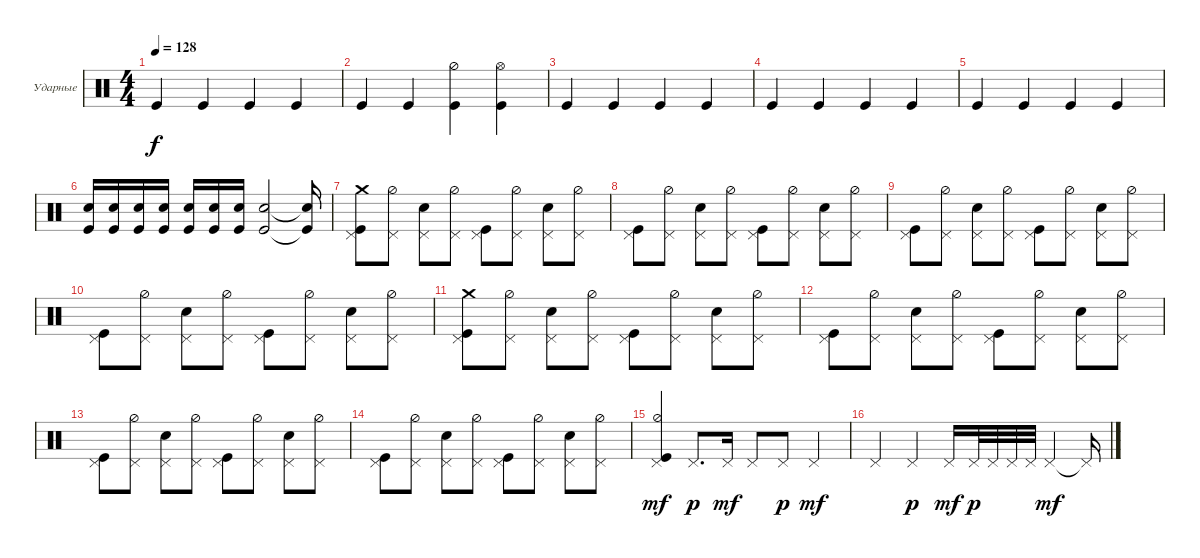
\defaultSystemsLayout 4
\bracketExtendMode groupsimilarinstruments
\firstSystemTrackNameOrientation horizontal
\otherSystemsTrackNameOrientation horizontal
\track ("Е. Кулаков" "Ударные") {instrument percussion}
\staff {score}
\articulation defaults
\ts (4 4)
\tempo 128
\clef neutral
\ks c "Kick (hit)".4{dy f} "Kick (hit)".4 "Kick (hit)".4 "Kick (hit)".4
|
"Kick (hit)".4 "Kick (hit)".4 ("Kick (hit)" "Hi-Hat (half)").4 ("Kick (hit)" "Hi-Hat (open)").4 |
"Kick (hit)".4 "Kick (hit)".4 "Kick (hit)".4 "Kick (hit)".4 |
"Kick (hit)".4 "Kick (hit)".4 "Kick (hit)".4 "Kick (hit)".4 |
"Kick (hit)".4 "Kick (hit)".4 "Kick (hit)".4 "Kick (hit)".4 |
("Kick (hit)" "Snare (hit) 2").16 ("Kick (hit)" "Snare (hit) 2").16 ("Kick (hit)" "Snare (hit) 2").16 ("Kick (hit)" "Snare (hit) 2").16 ("Kick (hit)" "Snare (hit) 2").16 ("Kick (hit)" "Snare (hit) 2").16 ("Kick (hit)" "Snare (hit) 2").16 ("Kick (hit)" "Snare (hit) 2").2 ("Kick (hit)"{t} "Snare (hit) 2"{t}).16 |
("Kick (hit)" "Pedal Hi-Hat (hit)" "Crash medium (hit)").8 ("Hi-Hat (half)" "Pedal Hi-Hat (hit)").8 ("Pedal Hi-Hat (hit)" "Snare (hit) 2").8 ("Hi-Hat (half)" "Pedal Hi-Hat (hit)").8 ("Kick (hit)" "Pedal Hi-Hat (hit)").8 ("Hi-Hat (half)" "Pedal Hi-Hat (hit)").8 ("Pedal Hi-Hat (hit)" "Snare (hit) 2").8 ("Hi-Hat (half)" "Pedal Hi-Hat (hit)").8 |
("Kick (hit)" "Pedal Hi-Hat (hit)").8 ("Hi-Hat (half)" "Pedal Hi-Hat (hit)").8 ("Pedal Hi-Hat (hit)" "Snare (hit) 2").8 ("Hi-Hat (half)" "Pedal Hi-Hat (hit)").8 ("Kick (hit)" "Pedal Hi-Hat (hit)").8 ("Hi-Hat (half)" "Pedal Hi-Hat (hit)").8 ("Pedal Hi-Hat (hit)" "Snare (hit) 2").8 ("Hi-Hat (half)" "Pedal Hi-Hat (hit)").8 |
("Kick (hit)" "Pedal Hi-Hat (hit)").8 ("Hi-Hat (half)" "Pedal Hi-Hat (hit)").8 ("Pedal Hi-Hat (hit)" "Snare (hit) 2").8 ("Hi-Hat (half)" "Pedal Hi-Hat (hit)").8 ("Kick (hit)" "Pedal Hi-Hat (hit)").8 ("Hi-Hat (half)" "Pedal Hi-Hat (hit)").8 ("Pedal Hi-Hat (hit)" "Snare (hit) 2").8 ("Hi-Hat (half)" "Pedal Hi-Hat (hit)").8 |
("Kick (hit)" "Pedal Hi-Hat (hit)").8 ("Hi-Hat (half)" "Pedal Hi-Hat (hit)").8 ("Pedal Hi-Hat (hit)" "Snare (hit) 2").8 ("Hi-Hat (half)" "Pedal Hi-Hat (hit)").8 ("Kick (hit)" "Pedal Hi-Hat (hit)").8 ("Hi-Hat (half)" "Pedal Hi-Hat (hit)").8 ("Pedal Hi-Hat (hit)" "Snare (hit) 2").8 ("Hi-Hat (half)" "Pedal Hi-Hat (hit)").8 |
("Kick (hit)" "Pedal Hi-Hat (hit)" "Crash medium (hit)").8 ("Hi-Hat (half)" "Pedal Hi-Hat (hit)").8 ("Pedal Hi-Hat (hit)" "Snare (hit) 2").8 ("Hi-Hat (half)" "Pedal Hi-Hat (hit)").8 ("Kick (hit)" "Pedal Hi-Hat (hit)").8 ("Hi-Hat (half)" "Pedal Hi-Hat (hit)").8 ("Pedal Hi-Hat (hit)" "Snare (hit) 2").8 ("Hi-Hat (half)" "Pedal Hi-Hat (hit)").8 |
("Kick (hit)" "Pedal Hi-Hat (hit)").8 ("Hi-Hat (half)" "Pedal Hi-Hat (hit)").8 ("Pedal Hi-Hat (hit)" "Snare (hit) 2").8 ("Hi-Hat (half)" "Pedal Hi-Hat (hit)").8 ("Kick (hit)" "Pedal Hi-Hat (hit)").8 ("Hi-Hat (half)" "Pedal Hi-Hat (hit)").8 ("Pedal Hi-Hat (hit)" "Snare (hit) 2").8 ("Hi-Hat (half)" "Pedal Hi-Hat (hit)").8 |
("Kick (hit)" "Pedal Hi-Hat (hit)").8 ("Hi-Hat (half)" "Pedal Hi-Hat (hit)").8 ("Pedal Hi-Hat (hit)" "Snare (hit) 2").8 ("Hi-Hat (half)" "Pedal Hi-Hat (hit)").8 ("Kick (hit)" "Pedal Hi-Hat (hit)").8 ("Hi-Hat (half)" "Pedal Hi-Hat (hit)").8 ("Pedal Hi-Hat (hit)" "Snare (hit) 2").8 ("Hi-Hat (half)" "Pedal Hi-Hat (hit)").8 |
("Kick (hit)" "Pedal Hi-Hat (hit)").8 ("Hi-Hat (half)" "Pedal Hi-Hat (hit)").8 ("Pedal Hi-Hat (hit)" "Snare (hit) 2").8 ("Hi-Hat (half)" "Pedal Hi-Hat (hit)").8 ("Kick (hit)" "Pedal Hi-Hat (hit)").8 ("Hi-Hat (half)" "Pedal Hi-Hat (hit)").8 ("Pedal Hi-Hat (hit)" "Snare (hit) 2").8 ("Hi-Hat (half)" "Pedal Hi-Hat (hit)").8 |
("Kick (hit)" "Pedal Hi-Hat (hit)" "Hi-Hat (half)").4{dy mf} "Pedal Hi-Hat (hit)".8{d dy p} "Pedal Hi-Hat (hit)".16{dy mf} "Pedal Hi-Hat (hit)".8 "Pedal Hi-Hat (hit)".8{dy p} "Pedal Hi-Hat (hit)".4{dy mf} |
"Pedal Hi-Hat (hit)".4 "Pedal Hi-Hat (hit)".4{dy p} "Pedal Hi-Hat (hit)".16{dy mf} "Pedal Hi-Hat (hit)".32{dy p} "Pedal Hi-Hat (hit)".32 "Pedal Hi-Hat (hit)".32 "Pedal Hi-Hat (hit)".32 "Pedal Hi-Hat (hit)".4{dy mf} "Pedal Hi-Hat (hit)"{t}.16
